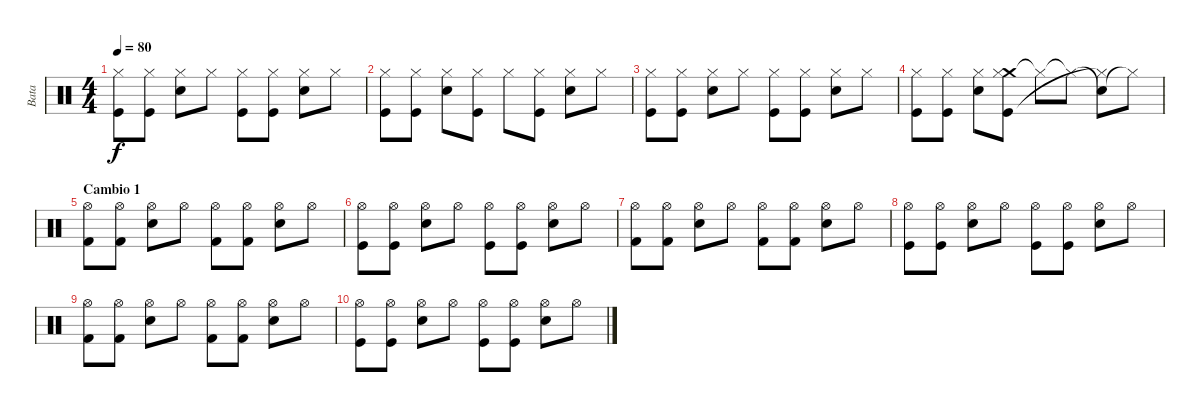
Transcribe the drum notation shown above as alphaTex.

\track ("Bata" "Bata") {instrument percussion}
\staff {score}
\articulation defaults
\ts (4 4)
\tempo 80
\clef neutral
\ks c
("Kick (hit)" "Hi-Hat (closed)").8{dy f} ("Kick (hit)" "Hi-Hat (closed)").8 ("Snare (hit) 2" "Hi-Hat (closed)").8 "Hi-Hat (closed)".8 ("Kick (hit)" "Hi-Hat (closed)").8 ("Kick (hit)" "Hi-Hat (closed)").8 ("Snare (hit) 2" "Hi-Hat (closed)").8 "Hi-Hat (closed)".8 |
("Kick (hit)" "Hi-Hat (closed)").8 ("Kick (hit)" "Hi-Hat (closed)").8 ("Snare (hit) 2" "Hi-Hat (closed)").8 ("Kick (hit)" "Hi-Hat (closed)").8 "Hi-Hat (closed)".8 ("Kick (hit)" "Hi-Hat (closed)").8 ("Snare (hit) 2" "Hi-Hat (closed)").8 "Hi-Hat (closed)".8 |
("Kick (hit)" "Hi-Hat (closed)").8 ("Kick (hit)" "Hi-Hat (closed)").8 ("Snare (hit) 2" "Hi-Hat (closed)").8 "Hi-Hat (closed)".8 ("Kick (hit)" "Hi-Hat (closed)").8 ("Kick (hit)" "Hi-Hat (closed)").8 ("Snare (hit) 2" "Hi-Hat (closed)").8 "Hi-Hat (closed)".8 |
("Kick (hit)" "Hi-Hat (closed)").8 ("Kick (hit)" "Hi-Hat (closed)").8 ("Snare (hit) 2" "Hi-Hat (closed)").8 ("Crash medium (hit)" "Kick (hit)" "Hi-Hat (closed)").8 "Hi-Hat (closed)"{t}.8 "Hi-Hat (closed)"{t}.8 ("Snare (hit) 2"{t} "Hi-Hat (closed)"{t}).8 "Hi-Hat (closed)"{t}.8 |
\section ("" "Cambio 1")
("Kick (hit) 2" "Hi-Hat (open)").8 ("Kick (hit) 2" "Hi-Hat (open)").8 ("Snare (hit) 2" "Hi-Hat (open)").8 "Hi-Hat (open)".8 ("Kick (hit) 2" "Hi-Hat (open)").8 ("Kick (hit) 2" "Hi-Hat (open)").8 ("Snare (hit) 2" "Hi-Hat (open)").8 "Hi-Hat (open)".8 |
("Kick (hit)" "Hi-Hat (open)").8 ("Kick (hit)" "Hi-Hat (open)").8 ("Snare (hit) 2" "Hi-Hat (open)").8 "Hi-Hat (open)".8 ("Kick (hit)" "Hi-Hat (open)").8 ("Kick (hit)" "Hi-Hat (open)").8 ("Snare (hit) 2" "Hi-Hat (open)").8 "Hi-Hat (open)".8 |
("Kick (hit) 2" "Hi-Hat (open)").8 ("Kick (hit) 2" "Hi-Hat (open)").8 ("Snare (hit) 2" "Hi-Hat (open)").8 "Hi-Hat (open)".8 ("Kick (hit) 2" "Hi-Hat (open)").8 ("Kick (hit) 2" "Hi-Hat (open)").8 ("Snare (hit) 2" "Hi-Hat (open)").8 "Hi-Hat (open)".8 |
("Kick (hit)" "Hi-Hat (open)").8 ("Kick (hit)" "Hi-Hat (open)").8 ("Snare (hit) 2" "Hi-Hat (open)").8 "Hi-Hat (open)".8 ("Kick (hit)" "Hi-Hat (open)").8 ("Kick (hit)" "Hi-Hat (open)").8 ("Snare (hit) 2" "Hi-Hat (open)").8 "Hi-Hat (open)".8 |
("Kick (hit) 2" "Hi-Hat (open)").8 ("Kick (hit) 2" "Hi-Hat (open)").8 ("Snare (hit) 2" "Hi-Hat (open)").8 "Hi-Hat (open)".8 ("Kick (hit) 2" "Hi-Hat (open)").8 ("Kick (hit) 2" "Hi-Hat (open)").8 ("Snare (hit) 2" "Hi-Hat (open)").8 "Hi-Hat (open)".8 |
("Kick (hit)" "Hi-Hat (open)").8 ("Kick (hit)" "Hi-Hat (open)").8 ("Snare (hit) 2" "Hi-Hat (open)").8 "Hi-Hat (open)".8 ("Kick (hit)" "Hi-Hat (open)").8 ("Kick (hit)" "Hi-Hat (open)").8 ("Snare (hit) 2" "Hi-Hat (open)").8 "Hi-Hat (open)".8
